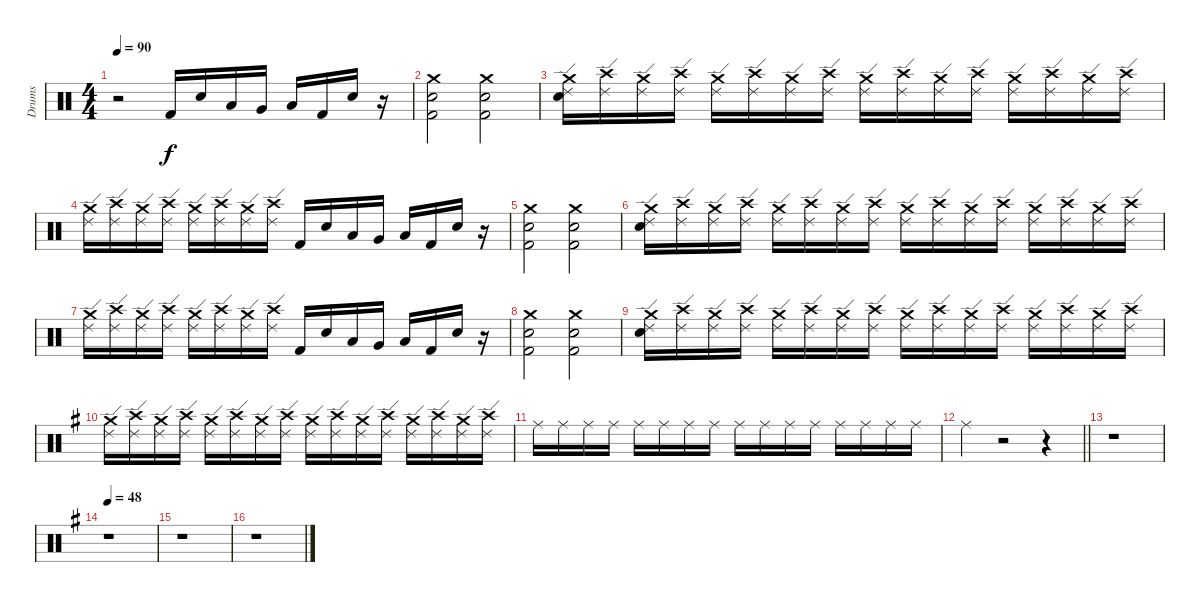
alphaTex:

\track ("Drums" "Drums") {instrument percussion}
\staff {score}
\articulation defaults
\ts (4 4)
\tempo 90
\clef neutral
\ks c
r.2{dy f} "Kick (hit) 2".16 "Electric Snare (hit)".16 "Low Tom (hit)".16 "Very Low Tom (hit)".16 "Low Floor Tom (hit)".16 "Kick (hit) 2".16 "Electric Snare (hit)".16 r.16 |
("Crash medium (hit)" "Electric Snare (hit)" "Kick (hit) 2").2 ("Crash medium (hit)" "Electric Snare (hit)" "Kick (hit) 2").2 |
("Electric Snare (hit)" "Ride (edge) 2" "Crash medium (hit)").16 ("Ride (edge) 2" "Crash high (hit)").16 ("Ride (edge) 2" "Crash medium (hit)").16 ("Ride (edge) 2" "Crash high (hit)").16 ("Ride (edge) 2" "Crash medium (hit)").16 ("Ride (edge) 2" "Crash high (hit)").16 ("Ride (edge) 2" "Crash medium (hit)").16 ("Ride (edge) 2" "Crash high (hit)").16 ("Ride (edge) 2" "Crash medium (hit)").16 ("Ride (edge) 2" "Crash high (hit)").16 ("Ride (edge) 2" "Crash medium (hit)").16 ("Ride (edge) 2" "Crash high (hit)").16 ("Ride (edge) 2" "Crash medium (hit)").16 ("Ride (edge) 2" "Crash high (hit)").16 ("Ride (edge) 2" "Crash medium (hit)").16 ("Ride (edge) 2" "Crash high (hit)").16 |
("Ride (edge) 2" "Crash medium (hit)").16 ("Ride (edge) 2" "Crash high (hit)").16 ("Ride (edge) 2" "Crash medium (hit)").16 ("Ride (edge) 2" "Crash high (hit)").16 ("Ride (edge) 2" "Crash medium (hit)").16 ("Ride (edge) 2" "Crash high (hit)").16 ("Ride (edge) 2" "Crash medium (hit)").16 ("Ride (edge) 2" "Crash high (hit)").16 "Kick (hit) 2".16 "Electric Snare (hit)".16 "Low Tom (hit)".16 "Very Low Tom (hit)".16 "Low Floor Tom (hit)".16 "Kick (hit) 2".16 "Electric Snare (hit)".16 r.16 |
("Crash medium (hit)" "Electric Snare (hit)" "Kick (hit) 2").2 ("Crash medium (hit)" "Electric Snare (hit)" "Kick (hit) 2").2 |
("Electric Snare (hit)" "Ride (edge) 2" "Crash medium (hit)").16 ("Ride (edge) 2" "Crash high (hit)").16 ("Ride (edge) 2" "Crash medium (hit)").16 ("Ride (edge) 2" "Crash high (hit)").16 ("Ride (edge) 2" "Crash medium (hit)").16 ("Ride (edge) 2" "Crash high (hit)").16 ("Ride (edge) 2" "Crash medium (hit)").16 ("Ride (edge) 2" "Crash high (hit)").16 ("Ride (edge) 2" "Crash medium (hit)").16 ("Ride (edge) 2" "Crash high (hit)").16 ("Ride (edge) 2" "Crash medium (hit)").16 ("Ride (edge) 2" "Crash high (hit)").16 ("Ride (edge) 2" "Crash medium (hit)").16 ("Ride (edge) 2" "Crash high (hit)").16 ("Ride (edge) 2" "Crash medium (hit)").16 ("Ride (edge) 2" "Crash high (hit)").16 |
("Ride (edge) 2" "Crash medium (hit)").16 ("Ride (edge) 2" "Crash high (hit)").16 ("Ride (edge) 2" "Crash medium (hit)").16 ("Ride (edge) 2" "Crash high (hit)").16 ("Ride (edge) 2" "Crash medium (hit)").16 ("Ride (edge) 2" "Crash high (hit)").16 ("Ride (edge) 2" "Crash medium (hit)").16 ("Ride (edge) 2" "Crash high (hit)").16 "Kick (hit) 2".16 "Electric Snare (hit)".16 "Low Tom (hit)".16 "Very Low Tom (hit)".16 "Low Floor Tom (hit)".16 "Kick (hit) 2".16 "Electric Snare (hit)".16 r.16 |
("Crash medium (hit)" "Electric Snare (hit)" "Kick (hit) 2").2 ("Crash medium (hit)" "Electric Snare (hit)" "Kick (hit) 2").2 |
("Electric Snare (hit)" "Ride (edge) 2" "Crash medium (hit)").16 ("Ride (edge) 2" "Crash high (hit)").16 ("Ride (edge) 2" "Crash medium (hit)").16 ("Ride (edge) 2" "Crash high (hit)").16 ("Ride (edge) 2" "Crash medium (hit)").16 ("Ride (edge) 2" "Crash high (hit)").16 ("Ride (edge) 2" "Crash medium (hit)").16 ("Ride (edge) 2" "Crash high (hit)").16 ("Ride (edge) 2" "Crash medium (hit)").16 ("Ride (edge) 2" "Crash high (hit)").16 ("Ride (edge) 2" "Crash medium (hit)").16 ("Ride (edge) 2" "Crash high (hit)").16 ("Ride (edge) 2" "Crash medium (hit)").16 ("Ride (edge) 2" "Crash high (hit)").16 ("Ride (edge) 2" "Crash medium (hit)").16 ("Ride (edge) 2" "Crash high (hit)").16 |
\ks g
("Ride (edge) 2" "Crash medium (hit)").16 ("Ride (edge) 2" "Crash high (hit)").16 ("Ride (edge) 2" "Crash medium (hit)").16 ("Ride (edge) 2" "Crash high (hit)").16 ("Ride (edge) 2" "Crash medium (hit)").16 ("Ride (edge) 2" "Crash high (hit)").16 ("Ride (edge) 2" "Crash medium (hit)").16 ("Ride (edge) 2" "Crash high (hit)").16 ("Ride (edge) 2" "Crash medium (hit)").16 ("Ride (edge) 2" "Crash high (hit)").16 ("Ride (edge) 2" "Crash medium (hit)").16 ("Ride (edge) 2" "Crash high (hit)").16 ("Ride (edge) 2" "Crash medium (hit)").16 ("Ride (edge) 2" "Crash high (hit)").16 ("Ride (edge) 2" "Crash medium (hit)").16 ("Ride (edge) 2" "Crash high (hit)").16 |
"Ride (middle)".16 "Ride (middle)".16 "Ride (middle)".16 "Ride (middle)".16 "Ride (middle)".16 "Ride (middle)".16 "Ride (middle)".16 "Ride (middle)".16 "Ride (middle)".16 "Ride (middle)".16 "Ride (middle)".16 "Ride (middle)".16 "Ride (middle)".16 "Ride (middle)".16 "Ride (middle)".16 "Ride (middle)".16 |
\barLineRight lightlight "Ride (middle)".4
r.2 r.4 |
r.1 |
\tempo 48
r.1 |
r.1 |
r.1
